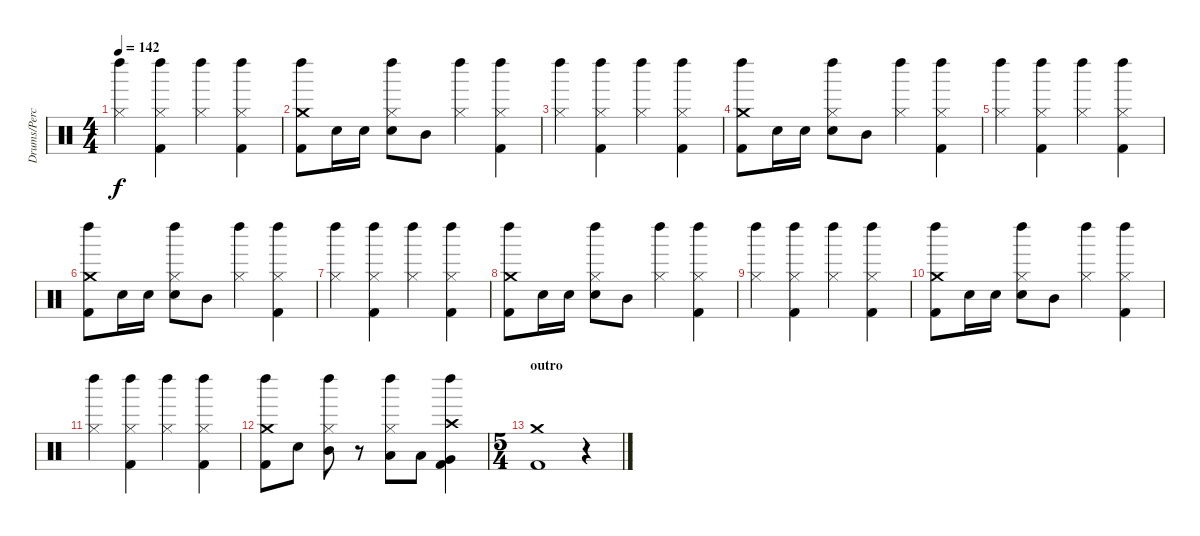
\track ("Drums/Percussion (Bengerg)" "Drums/Perc") {instrument percussion}
\staff {score}
\articulation defaults
\ts (4 4)
\tempo 142
\clef neutral
\ks c
("Hi-Hat (closed)" "Left Maraca (hit)").4{dy f} ("Hi-Hat (closed)" "Kick (hit) 2" "Left Maraca (hit)").4 ("Hi-Hat (closed)" "Left Maraca (hit)").4 ("Hi-Hat (closed)" "Kick (hit) 2" "Left Maraca (hit)").4 |
("Crash medium (hit)" "Kick (hit) 2" "Left Maraca (hit)").8 "Electric Snare (hit)".16 "Electric Snare (hit)".16 ("Hi-Hat (closed)" "Electric Snare (hit)" "Left Maraca (hit)").8 "Mid Tom (hit)".8 ("Hi-Hat (closed)" "Left Maraca (hit)").4 ("Hi-Hat (closed)" "Kick (hit) 2" "Left Maraca (hit)").4 |
("Hi-Hat (closed)" "Left Maraca (hit)").4 ("Hi-Hat (closed)" "Kick (hit) 2" "Left Maraca (hit)").4 ("Hi-Hat (closed)" "Left Maraca (hit)").4 ("Hi-Hat (closed)" "Kick (hit) 2" "Left Maraca (hit)").4 |
("Crash medium (hit)" "Kick (hit) 2" "Left Maraca (hit)").8 "Electric Snare (hit)".16 "Electric Snare (hit)".16 ("Hi-Hat (closed)" "Electric Snare (hit)" "Left Maraca (hit)").8 "Mid Tom (hit)".8 ("Hi-Hat (closed)" "Left Maraca (hit)").4 ("Hi-Hat (closed)" "Kick (hit) 2" "Left Maraca (hit)").4 |
("Hi-Hat (closed)" "Left Maraca (hit)").4 ("Hi-Hat (closed)" "Kick (hit) 2" "Left Maraca (hit)").4 ("Hi-Hat (closed)" "Left Maraca (hit)").4 ("Hi-Hat (closed)" "Kick (hit) 2" "Left Maraca (hit)").4 |
("Crash medium (hit)" "Kick (hit) 2" "Left Maraca (hit)").8 "Electric Snare (hit)".16 "Electric Snare (hit)".16 ("Hi-Hat (closed)" "Electric Snare (hit)" "Left Maraca (hit)").8 "Mid Tom (hit)".8 ("Hi-Hat (closed)" "Left Maraca (hit)").4 ("Hi-Hat (closed)" "Kick (hit) 2" "Left Maraca (hit)").4 |
("Hi-Hat (closed)" "Left Maraca (hit)").4 ("Hi-Hat (closed)" "Kick (hit) 2" "Left Maraca (hit)").4 ("Hi-Hat (closed)" "Left Maraca (hit)").4 ("Hi-Hat (closed)" "Kick (hit) 2" "Left Maraca (hit)").4 |
("Crash medium (hit)" "Kick (hit) 2" "Left Maraca (hit)").8 "Electric Snare (hit)".16 "Electric Snare (hit)".16 ("Hi-Hat (closed)" "Electric Snare (hit)" "Left Maraca (hit)").8 "Mid Tom (hit)".8 ("Hi-Hat (closed)" "Left Maraca (hit)").4 ("Hi-Hat (closed)" "Kick (hit) 2" "Left Maraca (hit)").4 |
("Hi-Hat (closed)" "Left Maraca (hit)").4 ("Hi-Hat (closed)" "Kick (hit) 2" "Left Maraca (hit)").4 ("Hi-Hat (closed)" "Left Maraca (hit)").4 ("Hi-Hat (closed)" "Kick (hit) 2" "Left Maraca (hit)").4 |
("Crash medium (hit)" "Kick (hit) 2" "Left Maraca (hit)").8 "Electric Snare (hit)".16 "Electric Snare (hit)".16 ("Hi-Hat (closed)" "Electric Snare (hit)" "Left Maraca (hit)").8 "Mid Tom (hit)".8 ("Hi-Hat (closed)" "Left Maraca (hit)").4 ("Hi-Hat (closed)" "Kick (hit) 2" "Left Maraca (hit)").4 |
("Hi-Hat (closed)" "Left Maraca (hit)").4 ("Hi-Hat (closed)" "Kick (hit) 2" "Left Maraca (hit)").4 ("Hi-Hat (closed)" "Left Maraca (hit)").4 ("Hi-Hat (closed)" "Kick (hit) 2" "Left Maraca (hit)").4 |
("Crash medium (hit)" "Kick (hit) 2" "Left Maraca (hit)").8 "Electric Snare (hit)".8 ("Hi-Hat (closed)" "Mid Tom (hit)" "Left Maraca (hit)").8 r.8 ("Hi-Hat (closed)" "Low Tom (hit)" "Left Maraca (hit)").8 "Low Tom (hit)".8 ("Crash high (hit)" "Very Low Tom (hit)" "Kick (hit) 2" "Left Maraca (hit)").4 |
\ts (5 4)
\section ("" "outro")
("Crash medium (hit)" "Kick (hit) 2").1 r.4
